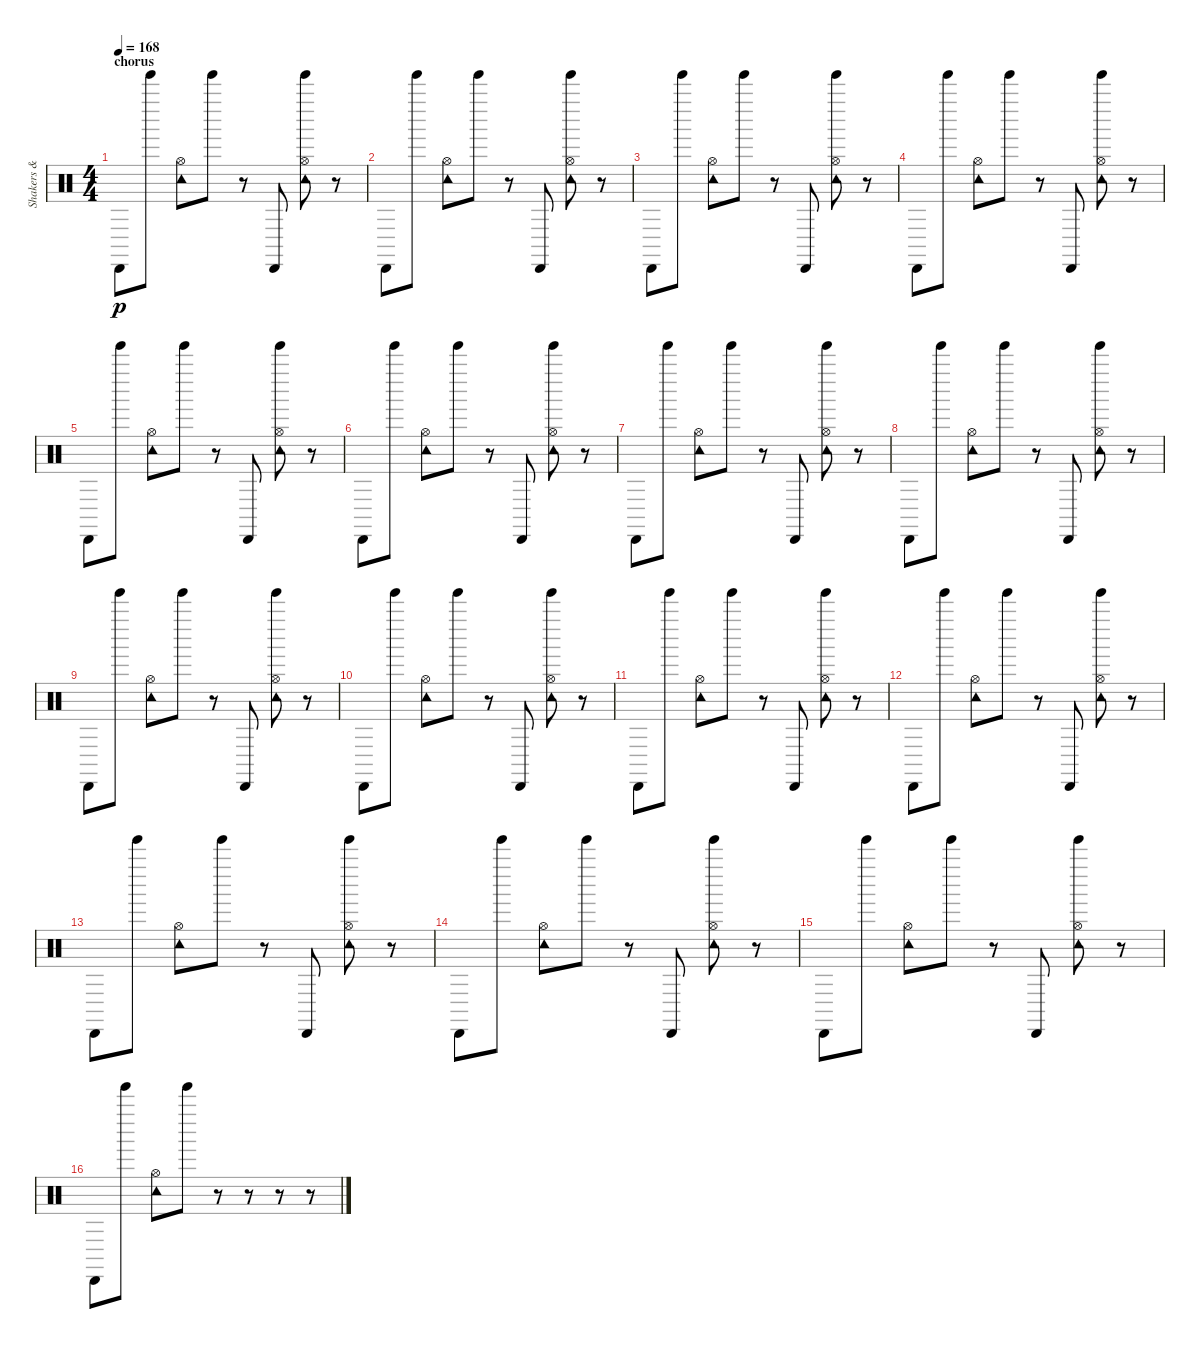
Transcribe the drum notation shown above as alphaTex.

\track ("Shakers & Effects" "Shakers & ") {instrument percussion}
\staff {score}
\articulation defaults
\ts (4 4)
\section ("" "chorus")
\tempo 168
\clef neutral
\ks c "Cabasa (hit)".8{dy p} "Tinkle Bell (hit)".8
("Tambourine (hit)" "Hi-Hat (open)").8 "Tinkle Bell (hit)".8 r.8 "Cabasa (hit)".8 ("Tambourine (hit)" "Tinkle Bell (hit)" "Hi-Hat (open)").8 r.8 |
"Cabasa (hit)".8 "Tinkle Bell (hit)".8 ("Tambourine (hit)" "Hi-Hat (open)").8 "Tinkle Bell (hit)".8 r.8 "Cabasa (hit)".8 ("Tambourine (hit)" "Tinkle Bell (hit)" "Hi-Hat (open)").8 r.8 |
"Cabasa (hit)".8 "Tinkle Bell (hit)".8 ("Tambourine (hit)" "Hi-Hat (open)").8 "Tinkle Bell (hit)".8 r.8 "Cabasa (hit)".8 ("Tambourine (hit)" "Tinkle Bell (hit)" "Hi-Hat (open)").8 r.8 |
"Cabasa (hit)".8 "Tinkle Bell (hit)".8 ("Tambourine (hit)" "Hi-Hat (open)").8 "Tinkle Bell (hit)".8 r.8 "Cabasa (hit)".8 ("Tambourine (hit)" "Tinkle Bell (hit)" "Hi-Hat (open)").8 r.8 |
"Cabasa (hit)".8 "Tinkle Bell (hit)".8 ("Tambourine (hit)" "Hi-Hat (open)").8 "Tinkle Bell (hit)".8 r.8 "Cabasa (hit)".8 ("Tambourine (hit)" "Tinkle Bell (hit)" "Hi-Hat (open)").8 r.8 |
"Cabasa (hit)".8 "Tinkle Bell (hit)".8 ("Tambourine (hit)" "Hi-Hat (open)").8 "Tinkle Bell (hit)".8 r.8 "Cabasa (hit)".8 ("Tambourine (hit)" "Tinkle Bell (hit)" "Hi-Hat (open)").8 r.8 |
"Cabasa (hit)".8 "Tinkle Bell (hit)".8 ("Tambourine (hit)" "Hi-Hat (open)").8 "Tinkle Bell (hit)".8 r.8 "Cabasa (hit)".8 ("Tambourine (hit)" "Tinkle Bell (hit)" "Hi-Hat (open)").8 r.8 |
"Cabasa (hit)".8 "Tinkle Bell (hit)".8 ("Tambourine (hit)" "Hi-Hat (open)").8 "Tinkle Bell (hit)".8 r.8 "Cabasa (hit)".8 ("Tambourine (hit)" "Tinkle Bell (hit)" "Hi-Hat (open)").8 r.8 |
"Cabasa (hit)".8 "Tinkle Bell (hit)".8 ("Tambourine (hit)" "Hi-Hat (open)").8 "Tinkle Bell (hit)".8 r.8 "Cabasa (hit)".8 ("Tambourine (hit)" "Tinkle Bell (hit)" "Hi-Hat (open)").8 r.8 |
"Cabasa (hit)".8 "Tinkle Bell (hit)".8 ("Tambourine (hit)" "Hi-Hat (open)").8 "Tinkle Bell (hit)".8 r.8 "Cabasa (hit)".8 ("Tambourine (hit)" "Tinkle Bell (hit)" "Hi-Hat (open)").8 r.8 |
"Cabasa (hit)".8 "Tinkle Bell (hit)".8 ("Tambourine (hit)" "Hi-Hat (open)").8 "Tinkle Bell (hit)".8 r.8 "Cabasa (hit)".8 ("Tambourine (hit)" "Tinkle Bell (hit)" "Hi-Hat (open)").8 r.8 |
"Cabasa (hit)".8 "Tinkle Bell (hit)".8 ("Tambourine (hit)" "Hi-Hat (open)").8 "Tinkle Bell (hit)".8 r.8 "Cabasa (hit)".8 ("Tambourine (hit)" "Tinkle Bell (hit)" "Hi-Hat (open)").8 r.8 |
"Cabasa (hit)".8 "Tinkle Bell (hit)".8 ("Tambourine (hit)" "Hi-Hat (open)").8 "Tinkle Bell (hit)".8 r.8 "Cabasa (hit)".8 ("Tambourine (hit)" "Tinkle Bell (hit)" "Hi-Hat (open)").8 r.8 |
"Cabasa (hit)".8 "Tinkle Bell (hit)".8 ("Tambourine (hit)" "Hi-Hat (open)").8 "Tinkle Bell (hit)".8 r.8 "Cabasa (hit)".8 ("Tambourine (hit)" "Tinkle Bell (hit)" "Hi-Hat (open)").8 r.8 |
"Cabasa (hit)".8 "Tinkle Bell (hit)".8 ("Tambourine (hit)" "Hi-Hat (open)").8 "Tinkle Bell (hit)".8 r.8 "Cabasa (hit)".8 ("Tambourine (hit)" "Tinkle Bell (hit)" "Hi-Hat (open)").8 r.8 |
"Cabasa (hit)".8 "Tinkle Bell (hit)".8 ("Tambourine (hit)" "Hi-Hat (open)").8 "Tinkle Bell (hit)".8 r.8 r.8 r.8 r.8
